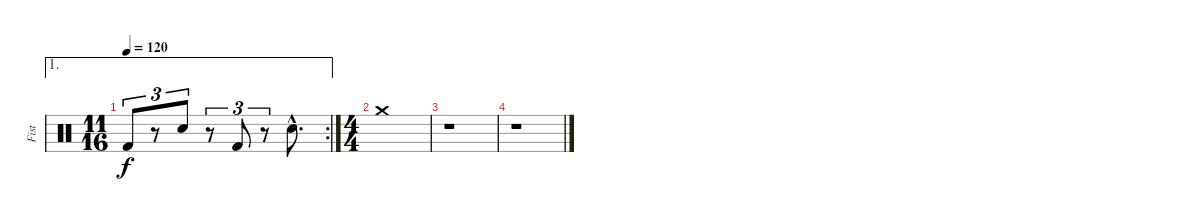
\track ("Fist" "Fist") {instrument percussion}
\staff {score}
\articulation defaults
\ae 1
\rc 2
\ts (11 16)
\tempo 120
\clef neutral
\ks c "Kick (hit) 2".8{tu (3 2) dy f}
r.8{tu (3 2)} "Electric Snare (hit)".8{tu (3 2)} r.8{tu (3 2)} "Kick (hit) 2".8{tu (3 2)} r.8{tu (3 2)} "Electric Snare (hit)"{hac}.8{d} |
\ts (4 4)
"Crash medium (hit)".1 |
r.1 |
r.1
